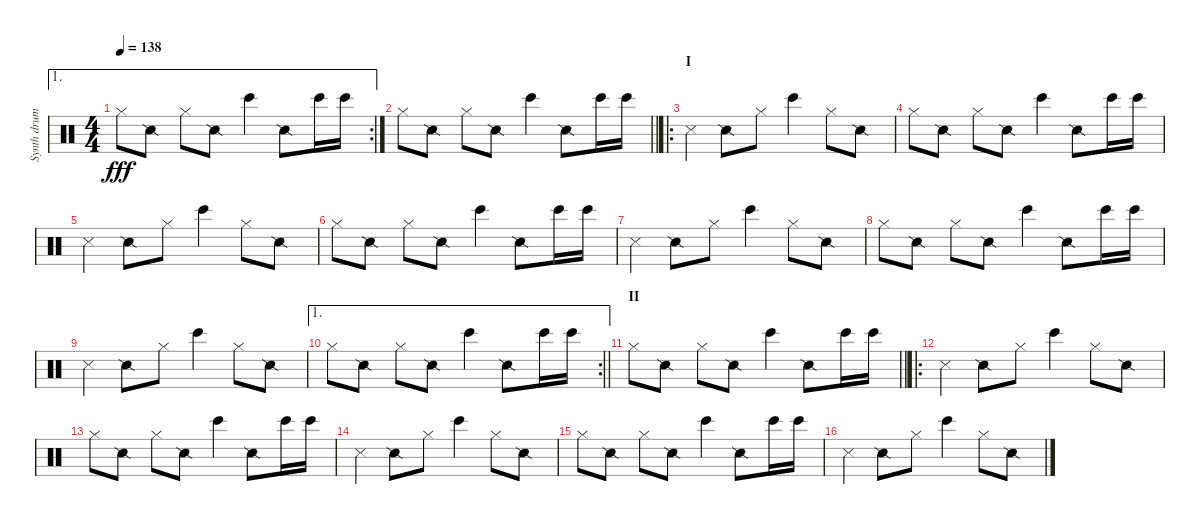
\track ("Synth drums" "Synth drum") {instrument percussion}
\staff {score}
\articulation defaults
\ae 1
\rc 2
\ts (4 4)
\tempo 138
\clef neutral
\ks c "Hi-Hat (closed)".8{dy fff} "Snare (side stick) 2".8 "Hi-Hat (closed)".8 "Snare (side stick) 2".8 "Bongo High (hit)".4 "Snare (side stick) 2".8 "Bongo High (hit)".16 "Bongo High (hit)".16
|
\barLineRight lightlight "Hi-Hat (closed)".8 "Snare (side stick) 2".8 "Hi-Hat (closed)".8 "Snare (side stick) 2".8 "Bongo High (hit)".4 "Snare (side stick) 2".8 "Bongo High (hit)".16 "Bongo High (hit)".16
|
\ro
\section ("" "I")
"Metronome (hit)".4 "Snare (side stick) 2".8 "Hi-Hat (closed)".8 "Bongo High (hit)".4 "Hi-Hat (closed)".8 "Snare (side stick) 2".8 |
"Hi-Hat (closed)".8 "Snare (side stick) 2".8 "Hi-Hat (closed)".8 "Snare (side stick) 2".8 "Bongo High (hit)".4 "Snare (side stick) 2".8 "Bongo High (hit)".16 "Bongo High (hit)".16 |
"Metronome (hit)".4 "Snare (side stick) 2".8 "Hi-Hat (closed)".8 "Bongo High (hit)".4 "Hi-Hat (closed)".8 "Snare (side stick) 2".8 |
"Hi-Hat (closed)".8 "Snare (side stick) 2".8 "Hi-Hat (closed)".8 "Snare (side stick) 2".8 "Bongo High (hit)".4 "Snare (side stick) 2".8 "Bongo High (hit)".16 "Bongo High (hit)".16 |
"Metronome (hit)".4 "Snare (side stick) 2".8 "Hi-Hat (closed)".8 "Bongo High (hit)".4 "Hi-Hat (closed)".8 "Snare (side stick) 2".8 |
"Hi-Hat (closed)".8 "Snare (side stick) 2".8 "Hi-Hat (closed)".8 "Snare (side stick) 2".8 "Bongo High (hit)".4 "Snare (side stick) 2".8 "Bongo High (hit)".16 "Bongo High (hit)".16 |
"Metronome (hit)".4 "Snare (side stick) 2".8 "Hi-Hat (closed)".8 "Bongo High (hit)".4 "Hi-Hat (closed)".8 "Snare (side stick) 2".8 |
\ae 1
\rc 2
\barLineRight lightlight "Hi-Hat (closed)".8 "Snare (side stick) 2".8 "Hi-Hat (closed)".8 "Snare (side stick) 2".8 "Bongo High (hit)".4 "Snare (side stick) 2".8 "Bongo High (hit)".16 "Bongo High (hit)".16
|
\section ("" "II")
\barLineRight lightlight "Hi-Hat (closed)".8 "Snare (side stick) 2".8 "Hi-Hat (closed)".8 "Snare (side stick) 2".8 "Bongo High (hit)".4 "Snare (side stick) 2".8 "Bongo High (hit)".16 "Bongo High (hit)".16
|
\ro "Metronome (hit)".4{volume 12} "Snare (side stick) 2".8 "Hi-Hat (closed)".8 "Bongo High (hit)".4 "Hi-Hat (closed)".8 "Snare (side stick) 2".8
|
"Hi-Hat (closed)".8 "Snare (side stick) 2".8 "Hi-Hat (closed)".8 "Snare (side stick) 2".8 "Bongo High (hit)".4 "Snare (side stick) 2".8 "Bongo High (hit)".16 "Bongo High (hit)".16 |
"Metronome (hit)".4 "Snare (side stick) 2".8 "Hi-Hat (closed)".8 "Bongo High (hit)".4 "Hi-Hat (closed)".8 "Snare (side stick) 2".8 |
"Hi-Hat (closed)".8 "Snare (side stick) 2".8 "Hi-Hat (closed)".8 "Snare (side stick) 2".8 "Bongo High (hit)".4 "Snare (side stick) 2".8 "Bongo High (hit)".16 "Bongo High (hit)".16 |
"Metronome (hit)".4 "Snare (side stick) 2".8 "Hi-Hat (closed)".8 "Bongo High (hit)".4 "Hi-Hat (closed)".8 "Snare (side stick) 2".8
